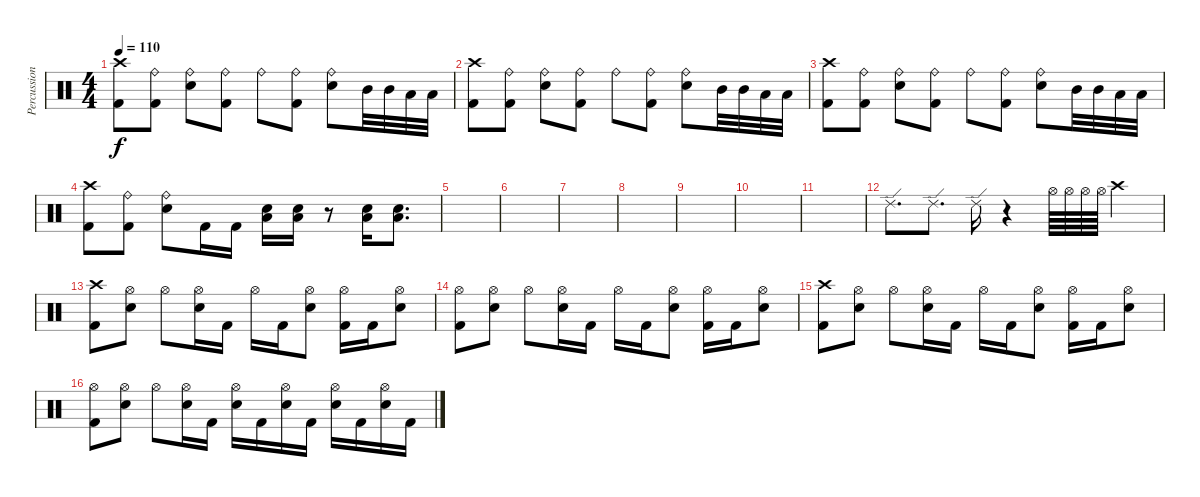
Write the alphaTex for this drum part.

\track ("Percussioni" "Percussion") {instrument percussion}
\staff {score}
\articulation defaults
\ts (4 4)
\tempo 110
\clef neutral
\ks c
("Crash high (hit)" "Kick (hit) 2").8{dy f} ("Ride (bell)" "Kick (hit) 2").8 ("Ride (bell)" "Snare (hit) 2").8 ("Ride (bell)" "Kick (hit) 2").8 "Ride (bell)".8 ("Ride (bell)" "Kick (hit) 2").8 ("Ride (bell)" "Snare (hit) 2").8 "Mid Tom (hit)".32 "Mid Tom (hit)".32 "Low Tom (hit)".32 "Low Tom (hit)".32 |
("Crash high (hit)" "Kick (hit) 2").8 ("Ride (bell)" "Kick (hit) 2").8 ("Ride (bell)" "Snare (hit) 2").8 ("Ride (bell)" "Kick (hit) 2").8 "Ride (bell)".8 ("Ride (bell)" "Kick (hit) 2").8 ("Ride (bell)" "Snare (hit) 2").8 "Mid Tom (hit)".32 "Mid Tom (hit)".32 "Low Tom (hit)".32 "Low Tom (hit)".32 |
("Crash high (hit)" "Kick (hit) 2").8 ("Ride (bell)" "Kick (hit) 2").8 ("Ride (bell)" "Snare (hit) 2").8 ("Ride (bell)" "Kick (hit) 2").8 "Ride (bell)".8 ("Ride (bell)" "Kick (hit) 2").8 ("Ride (bell)" "Snare (hit) 2").8 "Mid Tom (hit)".32 "Mid Tom (hit)".32 "Low Tom (hit)".32 "Low Tom (hit)".32 |
("Crash high (hit)" "Kick (hit) 2").8 ("Ride (bell)" "Kick (hit) 2").8 ("Ride (bell)" "Snare (hit) 2").8 "Kick (hit) 2".16 "Kick (hit) 2".16 ("Snare (hit) 2" "Low Tom (hit)").16 ("Snare (hit) 2" "Low Tom (hit)").16 r.8 ("Snare (hit) 2" "Low Tom (hit)").16 ("Snare (hit) 2" "Low Tom (hit)").8{d} |
|
|
|
|
|
|
|
"Ride (edge) 2".8{d} "Ride (edge) 2".8{d} "Ride (edge) 2".16 r.4 "Hi-Hat (open)".64 "Hi-Hat (open)".64 "Hi-Hat (open)".64 "Hi-Hat (open)".64 "Crash high (hit)".4 |
("Crash high (hit)" "Kick (hit) 2").8 ("Hi-Hat (open)" "Snare (hit) 2").8 "Hi-Hat (open)".8 ("Hi-Hat (open)" "Snare (hit) 2").16 "Kick (hit) 2".16 "Hi-Hat (open)".16 "Kick (hit) 2".16 ("Hi-Hat (open)" "Snare (hit) 2").8 ("Hi-Hat (open)" "Kick (hit) 2").16 "Kick (hit) 2".16 ("Hi-Hat (open)" "Snare (hit) 2").8 |
("Hi-Hat (open)" "Kick (hit) 2").8 ("Hi-Hat (open)" "Snare (hit) 2").8 "Hi-Hat (open)".8 ("Hi-Hat (open)" "Snare (hit) 2").16 "Kick (hit) 2".16 "Hi-Hat (open)".16 "Kick (hit) 2".16 ("Hi-Hat (open)" "Snare (hit) 2").8 ("Hi-Hat (open)" "Kick (hit) 2").16 "Kick (hit) 2".16 ("Hi-Hat (open)" "Snare (hit) 2").8 |
("Crash high (hit)" "Kick (hit) 2").8 ("Hi-Hat (open)" "Snare (hit) 2").8 "Hi-Hat (open)".8 ("Hi-Hat (open)" "Snare (hit) 2").16 "Kick (hit) 2".16 "Hi-Hat (open)".16 "Kick (hit) 2".16 ("Hi-Hat (open)" "Snare (hit) 2").8 ("Hi-Hat (open)" "Kick (hit) 2").16 "Kick (hit) 2".16 ("Hi-Hat (open)" "Snare (hit) 2").8 |
("Hi-Hat (open)" "Kick (hit) 2").8 ("Hi-Hat (open)" "Snare (hit) 2").8 "Hi-Hat (open)".8 ("Hi-Hat (open)" "Snare (hit) 2").16 "Kick (hit) 2".16 ("Hi-Hat (open)" "Snare (hit) 2").16 "Kick (hit) 2".16 ("Hi-Hat (open)" "Snare (hit) 2").16 "Kick (hit) 2".16 ("Hi-Hat (open)" "Snare (hit) 2").16 "Kick (hit) 2".16 ("Hi-Hat (open)" "Snare (hit) 2").16 "Kick (hit) 2".16
